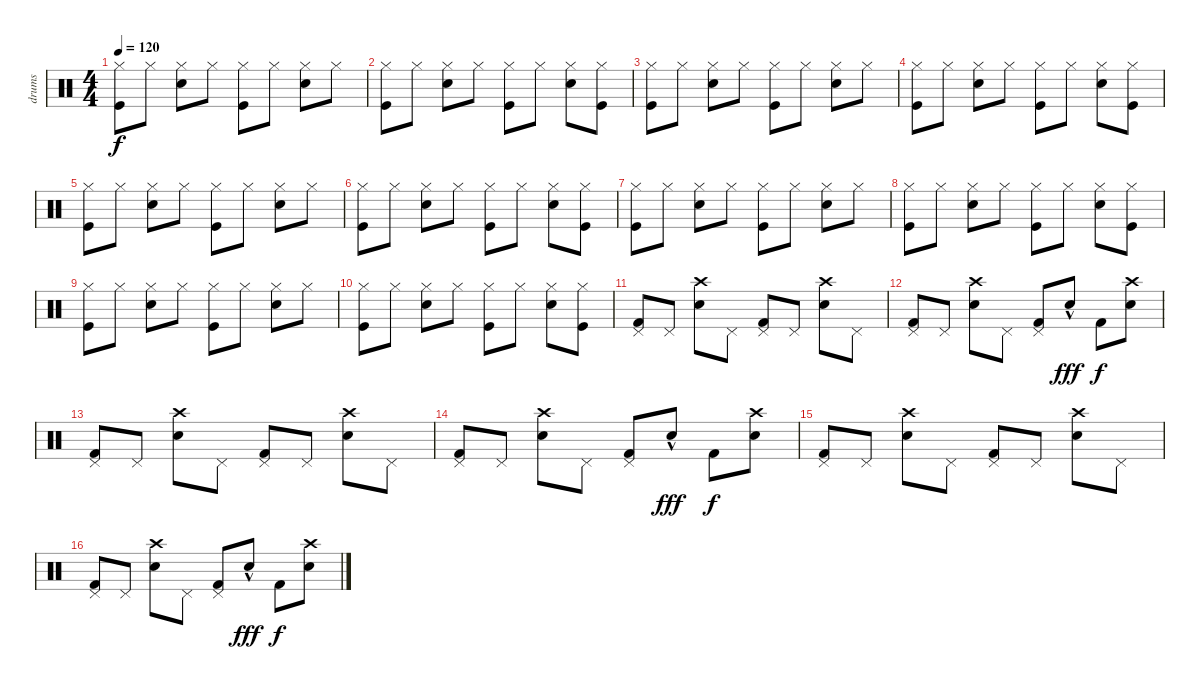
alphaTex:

\track ("drums" "drums") {instrument percussion}
\staff {score}
\articulation defaults
\ts (4 4)
\tempo 120
\clef neutral
\ks c
("Hi-Hat (closed)" "Kick (hit)").8{dy f} "Hi-Hat (closed)".8 ("Hi-Hat (closed)" "Snare (hit) 2").8 "Hi-Hat (closed)".8 ("Hi-Hat (closed)" "Kick (hit)").8 "Hi-Hat (closed)".8 ("Hi-Hat (closed)" "Snare (hit) 2").8 "Hi-Hat (closed)".8 |
("Hi-Hat (closed)" "Kick (hit)").8 "Hi-Hat (closed)".8 ("Hi-Hat (closed)" "Snare (hit) 2").8 "Hi-Hat (closed)".8 ("Hi-Hat (closed)" "Kick (hit)").8 "Hi-Hat (closed)".8 ("Hi-Hat (closed)" "Snare (hit) 2").8 ("Hi-Hat (closed)" "Kick (hit)").8 |
("Hi-Hat (closed)" "Kick (hit)").8 "Hi-Hat (closed)".8 ("Hi-Hat (closed)" "Snare (hit) 2").8 "Hi-Hat (closed)".8 ("Hi-Hat (closed)" "Kick (hit)").8 "Hi-Hat (closed)".8 ("Hi-Hat (closed)" "Snare (hit) 2").8 "Hi-Hat (closed)".8 |
("Hi-Hat (closed)" "Kick (hit)").8 "Hi-Hat (closed)".8 ("Hi-Hat (closed)" "Snare (hit) 2").8 "Hi-Hat (closed)".8 ("Hi-Hat (closed)" "Kick (hit)").8 "Hi-Hat (closed)".8 ("Hi-Hat (closed)" "Snare (hit) 2").8 ("Hi-Hat (closed)" "Kick (hit)").8 |
("Hi-Hat (closed)" "Kick (hit)").8 "Hi-Hat (closed)".8 ("Hi-Hat (closed)" "Snare (hit) 2").8 "Hi-Hat (closed)".8 ("Hi-Hat (closed)" "Kick (hit)").8 "Hi-Hat (closed)".8 ("Hi-Hat (closed)" "Snare (hit) 2").8 "Hi-Hat (closed)".8 |
("Hi-Hat (closed)" "Kick (hit)").8 "Hi-Hat (closed)".8 ("Hi-Hat (closed)" "Snare (hit) 2").8 "Hi-Hat (closed)".8 ("Hi-Hat (closed)" "Kick (hit)").8 "Hi-Hat (closed)".8 ("Hi-Hat (closed)" "Snare (hit) 2").8 ("Hi-Hat (closed)" "Kick (hit)").8 |
("Hi-Hat (closed)" "Kick (hit)").8 "Hi-Hat (closed)".8 ("Hi-Hat (closed)" "Snare (hit) 2").8 "Hi-Hat (closed)".8 ("Hi-Hat (closed)" "Kick (hit)").8 "Hi-Hat (closed)".8 ("Hi-Hat (closed)" "Snare (hit) 2").8 "Hi-Hat (closed)".8 |
("Hi-Hat (closed)" "Kick (hit)").8 "Hi-Hat (closed)".8 ("Hi-Hat (closed)" "Snare (hit) 2").8 "Hi-Hat (closed)".8 ("Hi-Hat (closed)" "Kick (hit)").8 "Hi-Hat (closed)".8 ("Hi-Hat (closed)" "Snare (hit) 2").8 ("Hi-Hat (closed)" "Kick (hit)").8 |
("Hi-Hat (closed)" "Kick (hit)").8 "Hi-Hat (closed)".8 ("Hi-Hat (closed)" "Snare (hit) 2").8 "Hi-Hat (closed)".8 ("Hi-Hat (closed)" "Kick (hit)").8 "Hi-Hat (closed)".8 ("Hi-Hat (closed)" "Snare (hit) 2").8 "Hi-Hat (closed)".8 |
("Hi-Hat (closed)" "Kick (hit)").8 "Hi-Hat (closed)".8 ("Hi-Hat (closed)" "Snare (hit) 2").8 "Hi-Hat (closed)".8 ("Hi-Hat (closed)" "Kick (hit)").8 "Hi-Hat (closed)".8 ("Hi-Hat (closed)" "Snare (hit) 2").8 ("Hi-Hat (closed)" "Kick (hit)").8 |
("Pedal Hi-Hat (hit)" "Kick (hit) 2").8 "Pedal Hi-Hat (hit)".8 ("Crash high (hit)" "Electric Snare (hit)").8 "Pedal Hi-Hat (hit)".8 ("Pedal Hi-Hat (hit)" "Kick (hit) 2").8 "Pedal Hi-Hat (hit)".8 ("Crash high (hit)" "Electric Snare (hit)").8 "Pedal Hi-Hat (hit)".8 |
("Pedal Hi-Hat (hit)" "Kick (hit) 2").8 "Pedal Hi-Hat (hit)".8 ("Crash high (hit)" "Electric Snare (hit)").8 "Pedal Hi-Hat (hit)".8 ("Pedal Hi-Hat (hit)" "Kick (hit) 2").8 "Electric Snare (hit)"{hac}.8{dy fff} "Kick (hit) 2".8{dy f} ("Crash high (hit)" "Electric Snare (hit)").8 |
("Pedal Hi-Hat (hit)" "Kick (hit) 2").8 "Pedal Hi-Hat (hit)".8 ("Crash high (hit)" "Electric Snare (hit)").8 "Pedal Hi-Hat (hit)".8 ("Pedal Hi-Hat (hit)" "Kick (hit) 2").8 "Pedal Hi-Hat (hit)".8 ("Crash high (hit)" "Electric Snare (hit)").8 "Pedal Hi-Hat (hit)".8 |
("Pedal Hi-Hat (hit)" "Kick (hit) 2").8 "Pedal Hi-Hat (hit)".8 ("Crash high (hit)" "Electric Snare (hit)").8 "Pedal Hi-Hat (hit)".8 ("Pedal Hi-Hat (hit)" "Kick (hit) 2").8 "Electric Snare (hit)"{hac}.8{dy fff} "Kick (hit) 2".8{dy f} ("Crash high (hit)" "Electric Snare (hit)").8 |
("Pedal Hi-Hat (hit)" "Kick (hit) 2").8 "Pedal Hi-Hat (hit)".8 ("Crash high (hit)" "Electric Snare (hit)").8 "Pedal Hi-Hat (hit)".8 ("Pedal Hi-Hat (hit)" "Kick (hit) 2").8 "Pedal Hi-Hat (hit)".8 ("Crash high (hit)" "Electric Snare (hit)").8 "Pedal Hi-Hat (hit)".8 |
("Pedal Hi-Hat (hit)" "Kick (hit) 2").8 "Pedal Hi-Hat (hit)".8 ("Crash high (hit)" "Electric Snare (hit)").8 "Pedal Hi-Hat (hit)".8 ("Pedal Hi-Hat (hit)" "Kick (hit) 2").8 "Electric Snare (hit)"{hac}.8{dy fff} "Kick (hit) 2".8{dy f} ("Crash high (hit)" "Electric Snare (hit)").8
